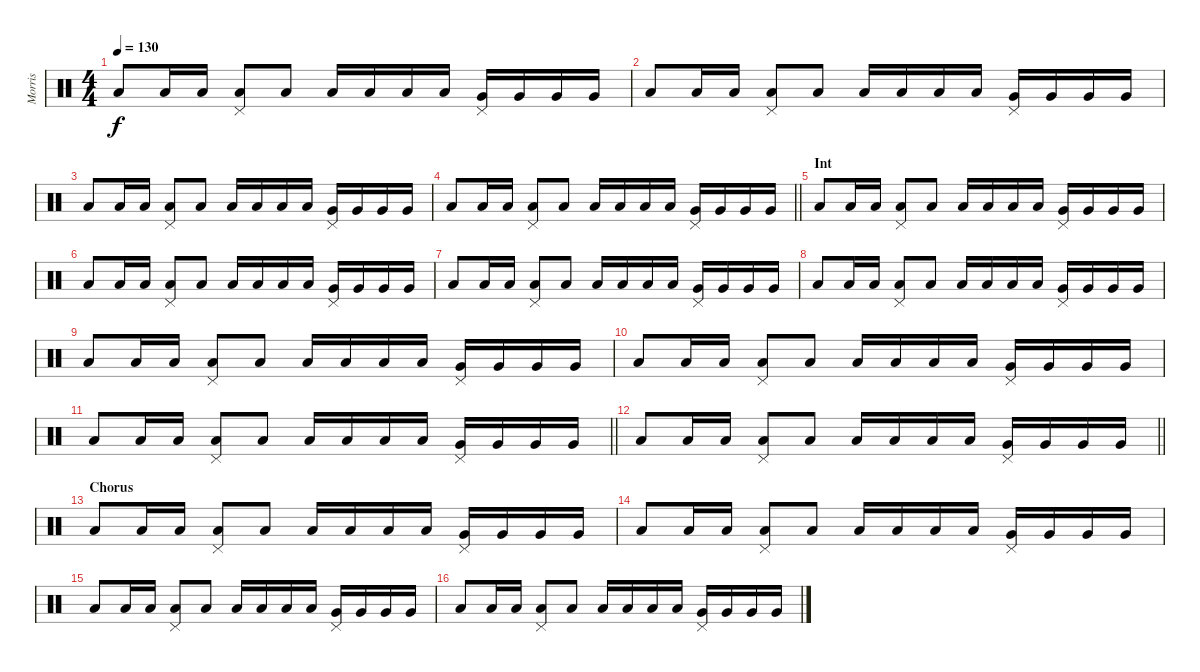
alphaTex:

\track ("Morris" "Morris") {instrument percussion}
\staff {score}
\articulation defaults
\ts (4 4)
\tempo 130
\clef neutral
\ks c "Low Floor Tom (hit)".8{dy f} "Low Floor Tom (hit)".16 "Low Floor Tom (hit)".16
("Low Tom (hit)" "Pedal Hi-Hat (hit)").8 "Low Floor Tom (hit)".8 "Low Tom (hit)".16 "Low Tom (hit)".16 "Low Tom (hit)".16 "Low Tom (hit)".16 ("Very Low Tom (hit)" "Pedal Hi-Hat (hit)").16 "Very Low Tom (hit)".16 "Very Low Tom (hit)".16 "Very Low Tom (hit)".16 |
"Low Floor Tom (hit)".8 "Low Floor Tom (hit)".16 "Low Floor Tom (hit)".16 ("Low Tom (hit)" "Pedal Hi-Hat (hit)").8 "Low Floor Tom (hit)".8 "Low Tom (hit)".16 "Low Tom (hit)".16 "Low Tom (hit)".16 "Low Tom (hit)".16 ("Very Low Tom (hit)" "Pedal Hi-Hat (hit)").16 "Very Low Tom (hit)".16 "Very Low Tom (hit)".16 "Very Low Tom (hit)".16 |
"Low Floor Tom (hit)".8 "Low Floor Tom (hit)".16 "Low Floor Tom (hit)".16 ("Low Tom (hit)" "Pedal Hi-Hat (hit)").8 "Low Floor Tom (hit)".8 "Low Tom (hit)".16 "Low Tom (hit)".16 "Low Tom (hit)".16 "Low Tom (hit)".16 ("Very Low Tom (hit)" "Pedal Hi-Hat (hit)").16 "Very Low Tom (hit)".16 "Very Low Tom (hit)".16 "Very Low Tom (hit)".16 |
\barLineRight lightlight "Low Floor Tom (hit)".8 "Low Floor Tom (hit)".16 "Low Floor Tom (hit)".16
("Low Tom (hit)" "Pedal Hi-Hat (hit)").8 "Low Floor Tom (hit)".8 "Low Tom (hit)".16 "Low Tom (hit)".16 "Low Tom (hit)".16 "Low Tom (hit)".16 ("Very Low Tom (hit)" "Pedal Hi-Hat (hit)").16 "Very Low Tom (hit)".16 "Very Low Tom (hit)".16 "Very Low Tom (hit)".16 |
\section ("" "Int")
"Low Floor Tom (hit)".8 "Low Floor Tom (hit)".16 "Low Floor Tom (hit)".16 ("Low Tom (hit)" "Pedal Hi-Hat (hit)").8 "Low Floor Tom (hit)".8 "Low Tom (hit)".16 "Low Tom (hit)".16 "Low Tom (hit)".16 "Low Tom (hit)".16 ("Very Low Tom (hit)" "Pedal Hi-Hat (hit)").16 "Very Low Tom (hit)".16 "Very Low Tom (hit)".16 "Very Low Tom (hit)".16 |
"Low Floor Tom (hit)".8 "Low Floor Tom (hit)".16 "Low Floor Tom (hit)".16 ("Low Tom (hit)" "Pedal Hi-Hat (hit)").8 "Low Floor Tom (hit)".8 "Low Tom (hit)".16 "Low Tom (hit)".16 "Low Tom (hit)".16 "Low Tom (hit)".16 ("Very Low Tom (hit)" "Pedal Hi-Hat (hit)").16 "Very Low Tom (hit)".16 "Very Low Tom (hit)".16 "Very Low Tom (hit)".16 |
"Low Floor Tom (hit)".8 "Low Floor Tom (hit)".16 "Low Floor Tom (hit)".16 ("Low Tom (hit)" "Pedal Hi-Hat (hit)").8 "Low Floor Tom (hit)".8 "Low Tom (hit)".16 "Low Tom (hit)".16 "Low Tom (hit)".16 "Low Tom (hit)".16 ("Very Low Tom (hit)" "Pedal Hi-Hat (hit)").16 "Very Low Tom (hit)".16 "Very Low Tom (hit)".16 "Very Low Tom (hit)".16 |
"Low Floor Tom (hit)".8 "Low Floor Tom (hit)".16 "Low Floor Tom (hit)".16 ("Low Tom (hit)" "Pedal Hi-Hat (hit)").8 "Low Floor Tom (hit)".8 "Low Tom (hit)".16 "Low Tom (hit)".16 "Low Tom (hit)".16 "Low Tom (hit)".16 ("Very Low Tom (hit)" "Pedal Hi-Hat (hit)").16 "Very Low Tom (hit)".16 "Very Low Tom (hit)".16 "Very Low Tom (hit)".16 |
"Low Floor Tom (hit)".8 "Low Floor Tom (hit)".16 "Low Floor Tom (hit)".16 ("Low Tom (hit)" "Pedal Hi-Hat (hit)").8 "Low Floor Tom (hit)".8 "Low Tom (hit)".16 "Low Tom (hit)".16 "Low Tom (hit)".16 "Low Tom (hit)".16 ("Very Low Tom (hit)" "Pedal Hi-Hat (hit)").16 "Very Low Tom (hit)".16 "Very Low Tom (hit)".16 "Very Low Tom (hit)".16 |
"Low Floor Tom (hit)".8 "Low Floor Tom (hit)".16 "Low Floor Tom (hit)".16 ("Low Tom (hit)" "Pedal Hi-Hat (hit)").8 "Low Floor Tom (hit)".8 "Low Tom (hit)".16 "Low Tom (hit)".16 "Low Tom (hit)".16 "Low Tom (hit)".16 ("Very Low Tom (hit)" "Pedal Hi-Hat (hit)").16 "Very Low Tom (hit)".16 "Very Low Tom (hit)".16 "Very Low Tom (hit)".16 |
\barLineRight lightlight "Low Floor Tom (hit)".8 "Low Floor Tom (hit)".16 "Low Floor Tom (hit)".16
("Low Tom (hit)" "Pedal Hi-Hat (hit)").8 "Low Floor Tom (hit)".8 "Low Tom (hit)".16 "Low Tom (hit)".16 "Low Tom (hit)".16 "Low Tom (hit)".16 ("Very Low Tom (hit)" "Pedal Hi-Hat (hit)").16 "Very Low Tom (hit)".16 "Very Low Tom (hit)".16 "Very Low Tom (hit)".16 |
\barLineRight lightlight "Low Floor Tom (hit)".8 "Low Floor Tom (hit)".16 "Low Floor Tom (hit)".16
("Low Tom (hit)" "Pedal Hi-Hat (hit)").8 "Low Floor Tom (hit)".8 "Low Tom (hit)".16 "Low Tom (hit)".16 "Low Tom (hit)".16 "Low Tom (hit)".16 ("Very Low Tom (hit)" "Pedal Hi-Hat (hit)").16 "Very Low Tom (hit)".16 "Very Low Tom (hit)".16 "Very Low Tom (hit)".16 |
\section ("" "Chorus")
"Low Floor Tom (hit)".8 "Low Floor Tom (hit)".16 "Low Floor Tom (hit)".16 ("Low Tom (hit)" "Pedal Hi-Hat (hit)").8 "Low Floor Tom (hit)".8 "Low Tom (hit)".16 "Low Tom (hit)".16 "Low Tom (hit)".16 "Low Tom (hit)".16 ("Very Low Tom (hit)" "Pedal Hi-Hat (hit)").16 "Very Low Tom (hit)".16 "Very Low Tom (hit)".16 "Very Low Tom (hit)".16 |
"Low Floor Tom (hit)".8 "Low Floor Tom (hit)".16 "Low Floor Tom (hit)".16 ("Low Tom (hit)" "Pedal Hi-Hat (hit)").8 "Low Floor Tom (hit)".8 "Low Tom (hit)".16 "Low Tom (hit)".16 "Low Tom (hit)".16 "Low Tom (hit)".16 ("Very Low Tom (hit)" "Pedal Hi-Hat (hit)").16 "Very Low Tom (hit)".16 "Very Low Tom (hit)".16 "Very Low Tom (hit)".16 |
"Low Floor Tom (hit)".8 "Low Floor Tom (hit)".16 "Low Floor Tom (hit)".16 ("Low Tom (hit)" "Pedal Hi-Hat (hit)").8 "Low Floor Tom (hit)".8 "Low Tom (hit)".16 "Low Tom (hit)".16 "Low Tom (hit)".16 "Low Tom (hit)".16 ("Very Low Tom (hit)" "Pedal Hi-Hat (hit)").16 "Very Low Tom (hit)".16 "Very Low Tom (hit)".16 "Very Low Tom (hit)".16 |
"Low Floor Tom (hit)".8 "Low Floor Tom (hit)".16 "Low Floor Tom (hit)".16 ("Low Tom (hit)" "Pedal Hi-Hat (hit)").8 "Low Floor Tom (hit)".8 "Low Tom (hit)".16 "Low Tom (hit)".16 "Low Tom (hit)".16 "Low Tom (hit)".16 ("Very Low Tom (hit)" "Pedal Hi-Hat (hit)").16 "Very Low Tom (hit)".16 "Very Low Tom (hit)".16 "Very Low Tom (hit)".16
